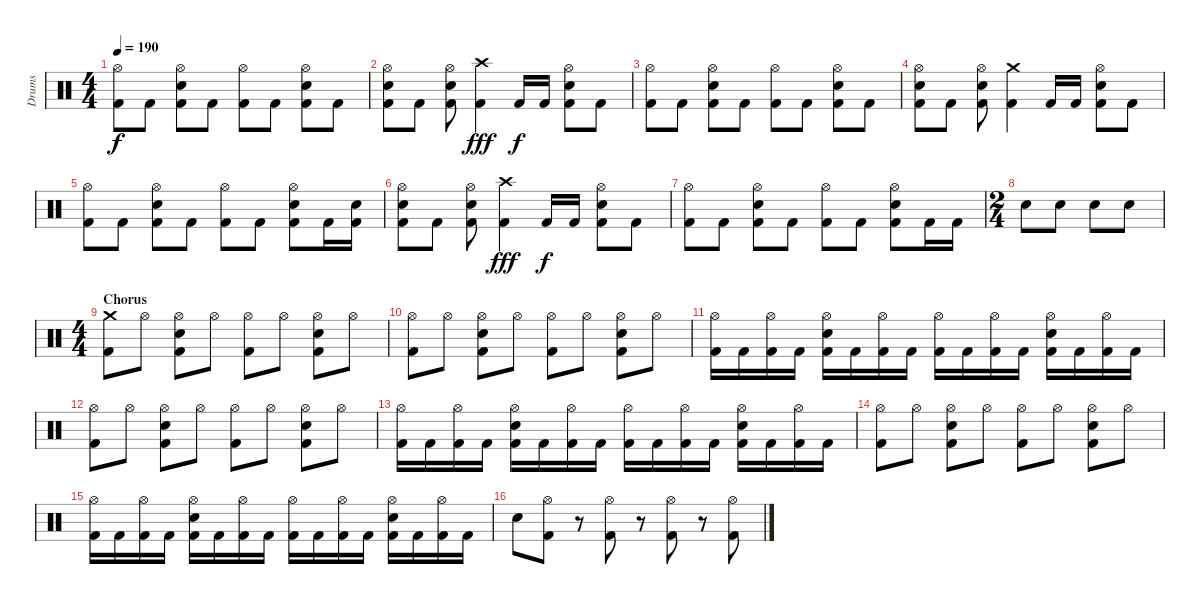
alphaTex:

\track ("Drums" "Drums") {instrument percussion}
\staff {score}
\articulation defaults
\ts (4 4)
\tempo 190
\clef neutral
\ks c
("Hi-Hat (open)" "Kick (hit) 2").8{dy f} "Kick (hit) 2".8 ("Hi-Hat (open)" "Snare (hit) 2" "Kick (hit) 2").8 "Kick (hit) 2".8 ("Hi-Hat (open)" "Kick (hit) 2").8 "Kick (hit) 2".8 ("Hi-Hat (open)" "Snare (hit) 2" "Kick (hit) 2").8 "Kick (hit) 2".8 |
("Hi-Hat (open)" "Snare (hit) 2" "Kick (hit) 2").8 "Kick (hit) 2".8 ("Hi-Hat (open)" "Snare (hit) 2" "Kick (hit) 2").8 ("Crash high (hit)" "Kick (hit) 2").4{dy fff} "Kick (hit) 2".16{dy f} "Kick (hit) 2".16 ("Hi-Hat (open)" "Snare (hit) 2" "Kick (hit) 2").8 "Kick (hit) 2".8 |
("Hi-Hat (open)" "Kick (hit) 2").8 "Kick (hit) 2".8 ("Hi-Hat (open)" "Snare (hit) 2" "Kick (hit) 2").8 "Kick (hit) 2".8 ("Hi-Hat (open)" "Kick (hit) 2").8 "Kick (hit) 2".8 ("Hi-Hat (open)" "Snare (hit) 2" "Kick (hit) 2").8 "Kick (hit) 2".8 |
("Hi-Hat (open)" "Snare (hit) 2" "Kick (hit) 2").8 "Kick (hit) 2".8 ("Hi-Hat (open)" "Snare (hit) 2" "Kick (hit) 2").8 ("Crash medium (hit)" "Kick (hit) 2").4 "Kick (hit) 2".16 "Kick (hit) 2".16 ("Hi-Hat (open)" "Snare (hit) 2" "Kick (hit) 2").8 "Kick (hit) 2".8 |
("Hi-Hat (open)" "Kick (hit) 2").8 "Kick (hit) 2".8 ("Hi-Hat (open)" "Snare (hit) 2" "Kick (hit) 2").8 "Kick (hit) 2".8 ("Hi-Hat (open)" "Kick (hit) 2").8 "Kick (hit) 2".8 ("Hi-Hat (open)" "Snare (hit) 2" "Kick (hit) 2").8 "Kick (hit) 2".16 ("Snare (hit) 2" "Kick (hit) 2").16 |
("Hi-Hat (open)" "Snare (hit) 2" "Kick (hit) 2").8 "Kick (hit) 2".8 ("Hi-Hat (open)" "Snare (hit) 2" "Kick (hit) 2").8 ("Crash high (hit)" "Kick (hit) 2").4{dy fff} "Kick (hit) 2".16{dy f} "Kick (hit) 2".16 ("Hi-Hat (open)" "Snare (hit) 2" "Kick (hit) 2").8 "Kick (hit) 2".8 |
("Hi-Hat (open)" "Kick (hit) 2").8 "Kick (hit) 2".8 ("Hi-Hat (open)" "Snare (hit) 2" "Kick (hit) 2").8 "Kick (hit) 2".8 ("Hi-Hat (open)" "Kick (hit) 2").8 "Kick (hit) 2".8 ("Hi-Hat (open)" "Snare (hit) 2" "Kick (hit) 2").8 "Kick (hit) 2".16 "Kick (hit) 2".16 |
\ts (2 4)
"Snare (hit) 2".8 "Snare (hit) 2".8 "Snare (hit) 2".8 "Snare (hit) 2".8 |
\ts (4 4)
\section ("" "Chorus")
("Crash medium (hit)" "Kick (hit) 2").8 "Hi-Hat (open)".8 ("Hi-Hat (open)" "Snare (hit) 2" "Kick (hit) 2").8 "Hi-Hat (open)".8 ("Hi-Hat (open)" "Kick (hit) 2").8 "Hi-Hat (open)".8 ("Hi-Hat (open)" "Snare (hit) 2" "Kick (hit) 2").8 "Hi-Hat (open)".8 |
("Hi-Hat (open)" "Kick (hit) 2").8 "Hi-Hat (open)".8 ("Hi-Hat (open)" "Snare (hit) 2" "Kick (hit) 2").8 "Hi-Hat (open)".8 ("Hi-Hat (open)" "Kick (hit) 2").8 "Hi-Hat (open)".8 ("Hi-Hat (open)" "Snare (hit) 2" "Kick (hit) 2").8 "Hi-Hat (open)".8 |
("Hi-Hat (open)" "Kick (hit) 2").16 "Kick (hit) 2".16 ("Hi-Hat (open)" "Kick (hit) 2").16 "Kick (hit) 2".16 ("Hi-Hat (open)" "Snare (hit) 2" "Kick (hit) 2").16 "Kick (hit) 2".16 ("Hi-Hat (open)" "Kick (hit) 2").16 "Kick (hit) 2".16 ("Hi-Hat (open)" "Kick (hit) 2").16 "Kick (hit) 2".16 ("Hi-Hat (open)" "Kick (hit) 2").16 "Kick (hit) 2".16 ("Hi-Hat (open)" "Snare (hit) 2" "Kick (hit) 2").16 "Kick (hit) 2".16 ("Hi-Hat (open)" "Kick (hit) 2").16 "Kick (hit) 2".16 |
("Hi-Hat (open)" "Kick (hit) 2").8 "Hi-Hat (open)".8 ("Hi-Hat (open)" "Snare (hit) 2" "Kick (hit) 2").8 "Hi-Hat (open)".8 ("Hi-Hat (open)" "Kick (hit) 2").8 "Hi-Hat (open)".8 ("Hi-Hat (open)" "Snare (hit) 2" "Kick (hit) 2").8 "Hi-Hat (open)".8 |
("Hi-Hat (open)" "Kick (hit) 2").16 "Kick (hit) 2".16 ("Hi-Hat (open)" "Kick (hit) 2").16 "Kick (hit) 2".16 ("Hi-Hat (open)" "Snare (hit) 2" "Kick (hit) 2").16 "Kick (hit) 2".16 ("Hi-Hat (open)" "Kick (hit) 2").16 "Kick (hit) 2".16 ("Hi-Hat (open)" "Kick (hit) 2").16 "Kick (hit) 2".16 ("Hi-Hat (open)" "Kick (hit) 2").16 "Kick (hit) 2".16 ("Hi-Hat (open)" "Snare (hit) 2" "Kick (hit) 2").16 "Kick (hit) 2".16 ("Hi-Hat (open)" "Kick (hit) 2").16 "Kick (hit) 2".16 |
("Hi-Hat (open)" "Kick (hit) 2").8 "Hi-Hat (open)".8 ("Hi-Hat (open)" "Snare (hit) 2" "Kick (hit) 2").8 "Hi-Hat (open)".8 ("Hi-Hat (open)" "Kick (hit) 2").8 "Hi-Hat (open)".8 ("Hi-Hat (open)" "Snare (hit) 2" "Kick (hit) 2").8 "Hi-Hat (open)".8 |
("Hi-Hat (open)" "Kick (hit) 2").16 "Kick (hit) 2".16 ("Hi-Hat (open)" "Kick (hit) 2").16 "Kick (hit) 2".16 ("Hi-Hat (open)" "Snare (hit) 2" "Kick (hit) 2").16 "Kick (hit) 2".16 ("Hi-Hat (open)" "Kick (hit) 2").16 "Kick (hit) 2".16 ("Hi-Hat (open)" "Kick (hit) 2").16 "Kick (hit) 2".16 ("Hi-Hat (open)" "Kick (hit) 2").16 "Kick (hit) 2".16 ("Hi-Hat (open)" "Snare (hit) 2" "Kick (hit) 2").16 "Kick (hit) 2".16 ("Hi-Hat (open)" "Kick (hit) 2").16 "Kick (hit) 2".16 |
"Snare (hit) 2".8 ("Hi-Hat (open)" "Kick (hit) 2").8 r.8 ("Hi-Hat (open)" "Kick (hit) 2").8 r.8 ("Hi-Hat (open)" "Kick (hit) 2").8 r.8 ("Hi-Hat (open)" "Kick (hit) 2").8
